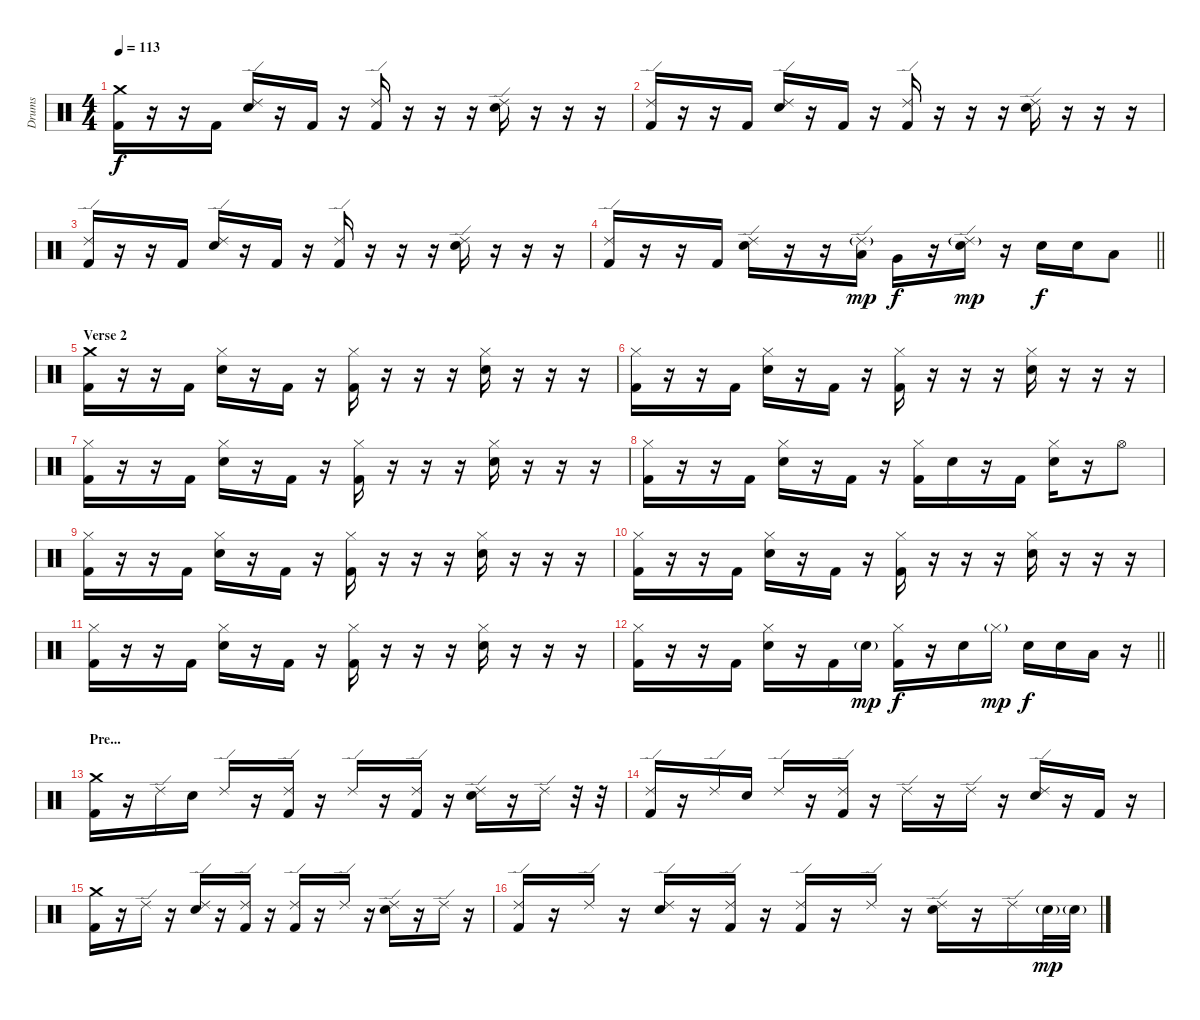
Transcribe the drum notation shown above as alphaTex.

\track ("Drums" "Drums") {instrument percussion}
\staff {score}
\articulation defaults
\ts (4 4)
\section ("" "")
\tempo 113
\clef neutral
\ks c
("Crash medium (hit)" "Kick (hit) 2").16{dy f} r.16 r.16 "Kick (hit) 2".16 ("Ride (edge) 2" "Electric Snare (hit)").16 r.16 "Kick (hit) 2".16 r.16 ("Ride (edge) 2" "Kick (hit) 2").16 r.16 r.16 r.16 ("Ride (edge) 2" "Electric Snare (hit)").16 r.16 r.16 r.16 |
("Ride (edge) 2" "Kick (hit) 2").16 r.16 r.16 "Kick (hit) 2".16 ("Ride (edge) 2" "Electric Snare (hit)").16 r.16 "Kick (hit) 2".16 r.16 ("Ride (edge) 2" "Kick (hit) 2").16 r.16 r.16 r.16 ("Ride (edge) 2" "Electric Snare (hit)").16 r.16 r.16 r.16 |
("Ride (edge) 2" "Kick (hit) 2").16 r.16 r.16 "Kick (hit) 2".16 ("Ride (edge) 2" "Electric Snare (hit)").16 r.16 "Kick (hit) 2".16 r.16 ("Ride (edge) 2" "Kick (hit) 2").16 r.16 r.16 r.16 ("Ride (edge) 2" "Electric Snare (hit)").16 r.16 r.16 r.16 |
\barLineRight lightlight
("Ride (edge) 2" "Kick (hit) 2").16 r.16 r.16 "Kick (hit) 2".16 ("Ride (edge) 2" "Electric Snare (hit)").16 r.16 r.16 ("Ride (edge) 2"{g} "Low Tom (hit)").16{dy mp} "Very Low Tom (hit)".16{dy f} r.16 ("Ride (edge) 2"{g} "Electric Snare (hit)").16{dy mp} r.16 "Electric Snare (hit)".16{dy f} "Electric Snare (hit)".16 "Low Tom (hit)".8 |
\section ("" "Verse 2")
("Crash medium (hit)" "Kick (hit) 2").16 r.16 r.16 "Kick (hit) 2".16 ("Hi-Hat (closed)" "Electric Snare (hit)").16 r.16 "Kick (hit) 2".16 r.16 ("Hi-Hat (closed)" "Kick (hit) 2").16 r.16 r.16 r.16 ("Hi-Hat (closed)" "Electric Snare (hit)").16 r.16 r.16 r.16 |
("Hi-Hat (closed)" "Kick (hit) 2").16 r.16 r.16 "Kick (hit) 2".16 ("Hi-Hat (closed)" "Electric Snare (hit)").16 r.16 "Kick (hit) 2".16 r.16 ("Hi-Hat (closed)" "Kick (hit) 2").16 r.16 r.16 r.16 ("Hi-Hat (closed)" "Electric Snare (hit)").16 r.16 r.16 r.16 |
("Hi-Hat (closed)" "Kick (hit) 2").16 r.16 r.16 "Kick (hit) 2".16 ("Hi-Hat (closed)" "Electric Snare (hit)").16 r.16 "Kick (hit) 2".16 r.16 ("Hi-Hat (closed)" "Kick (hit) 2").16 r.16 r.16 r.16 ("Hi-Hat (closed)" "Electric Snare (hit)").16 r.16 r.16 r.16 |
("Hi-Hat (closed)" "Kick (hit) 2").16 r.16 r.16 "Kick (hit) 2".16 ("Hi-Hat (closed)" "Electric Snare (hit)").16 r.16 "Kick (hit) 2".16 r.16 ("Hi-Hat (closed)" "Kick (hit) 2").16 "Electric Snare (hit)".16 r.16 "Kick (hit) 2".16 ("Hi-Hat (closed)" "Electric Snare (hit)").16 r.16 "Hi-Hat (open)".8 |
("Hi-Hat (closed)" "Kick (hit) 2").16 r.16 r.16 "Kick (hit) 2".16 ("Hi-Hat (closed)" "Electric Snare (hit)").16 r.16 "Kick (hit) 2".16 r.16 ("Hi-Hat (closed)" "Kick (hit) 2").16 r.16 r.16 r.16 ("Hi-Hat (closed)" "Electric Snare (hit)").16 r.16 r.16 r.16 |
("Hi-Hat (closed)" "Kick (hit) 2").16 r.16 r.16 "Kick (hit) 2".16 ("Hi-Hat (closed)" "Electric Snare (hit)").16 r.16 "Kick (hit) 2".16 r.16 ("Hi-Hat (closed)" "Kick (hit) 2").16 r.16 r.16 r.16 ("Hi-Hat (closed)" "Electric Snare (hit)").16 r.16 r.16 r.16 |
("Hi-Hat (closed)" "Kick (hit) 2").16 r.16 r.16 "Kick (hit) 2".16 ("Hi-Hat (closed)" "Electric Snare (hit)").16 r.16 "Kick (hit) 2".16 r.16 ("Hi-Hat (closed)" "Kick (hit) 2").16 r.16 r.16 r.16 ("Hi-Hat (closed)" "Electric Snare (hit)").16 r.16 r.16 r.16 |
\barLineRight lightlight
("Hi-Hat (closed)" "Kick (hit) 2").16 r.16 r.16 "Kick (hit) 2".16 ("Hi-Hat (closed)" "Electric Snare (hit)").16 r.16 "Kick (hit) 2".16 "Electric Snare (hit)"{g}.16{dy mp} ("Hi-Hat (closed)" "Kick (hit) 2").16{dy f} r.16 "Electric Snare (hit)".16 "Hi-Hat (closed)"{g}.16{dy mp} "Electric Snare (hit)".16{dy f} "Electric Snare (hit)".16 "Low Tom (hit)".16 r.16 |
\section ("" "Pre...")
("Crash medium (hit)" "Kick (hit) 2").16 r.16 "Ride (edge) 2".16 "Electric Snare (hit)".16 "Ride (edge) 2".16 r.16 ("Ride (edge) 2" "Kick (hit) 2").16 r.16 "Ride (edge) 2".16 r.16 ("Ride (edge) 2" "Kick (hit) 2").16 r.16 ("Ride (edge) 2" "Electric Snare (hit)").16 r.16 "Ride (edge) 2".16 r.32 r.32 |
("Ride (edge) 2" "Kick (hit) 2").16 r.16 "Ride (edge) 2".16 "Electric Snare (hit)".16 "Ride (edge) 2".16 r.16 ("Ride (edge) 2" "Kick (hit) 2").16 r.16 "Ride (edge) 2".16 r.16 "Ride (edge) 2".16 r.16 ("Ride (edge) 2" "Electric Snare (hit)").16 r.16 "Kick (hit) 2".16 r.16 |
("Crash medium (hit)" "Kick (hit) 2").16 r.16 "Ride (edge) 2".16 r.16 ("Ride (edge) 2" "Electric Snare (hit)").16 r.16 ("Ride (edge) 2" "Kick (hit) 2").16 r.16 ("Ride (edge) 2" "Kick (hit) 2").16 r.16 "Ride (edge) 2".16 r.16 ("Ride (edge) 2" "Electric Snare (hit)").16 r.16 "Ride (edge) 2".16 r.16 |
("Ride (edge) 2" "Kick (hit) 2").16 r.16 "Ride (edge) 2".16 r.16 ("Ride (edge) 2" "Electric Snare (hit)").16 r.16 ("Ride (edge) 2" "Kick (hit) 2").16 r.16 ("Ride (edge) 2" "Kick (hit) 2").16 r.16 "Ride (edge) 2".16 r.16 ("Ride (edge) 2" "Electric Snare (hit)").16 r.16 "Ride (edge) 2".16 "Electric Snare (hit)"{g}.32{dy mp} "Electric Snare (hit)"{g}.32
